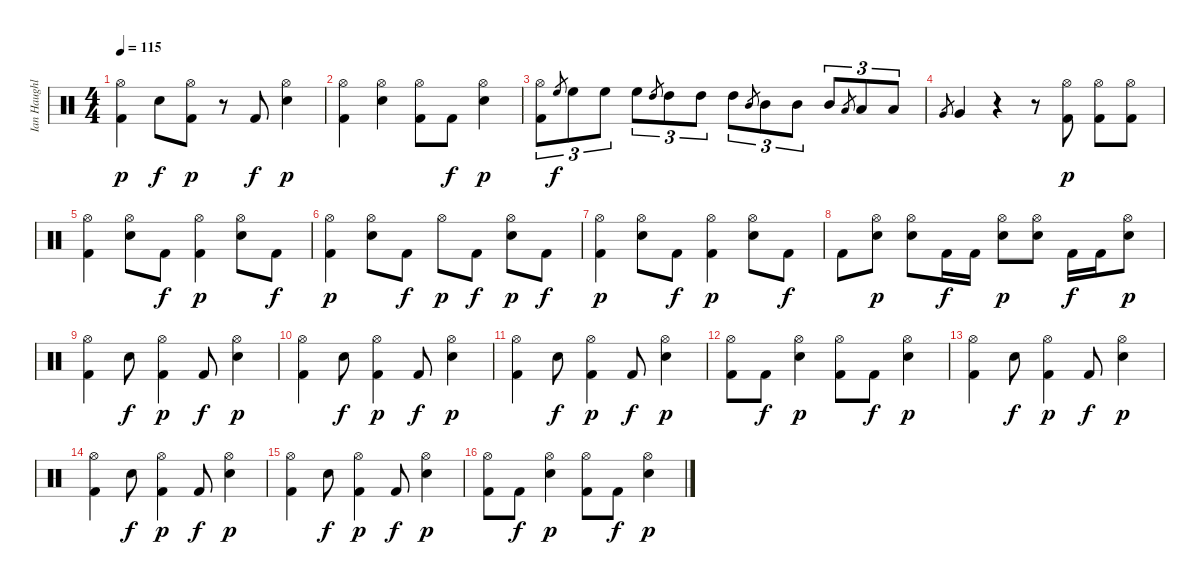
\track ("Ian Haughland" "Ian Haughl") {instrument percussion}
\staff {score}
\articulation defaults
\ts (4 4)
\tempo 115
\clef neutral
\ks c
("Kick (hit) 2" "Hi-Hat (open)").4{dy p} "Snare (hit) 2".8{dy f} ("Kick (hit) 2" "Hi-Hat (open)").8{dy p} r.8 "Kick (hit) 2".8{dy f} ("Snare (hit) 2" "Hi-Hat (open)").4{dy p} |
("Kick (hit) 2" "Hi-Hat (open)").4 ("Snare (hit) 2" "Hi-Hat (open)").4 ("Kick (hit) 2" "Hi-Hat (open)").8 "Kick (hit) 2".8{dy f} ("Snare (hit) 2" "Hi-Hat (open)").4{dy p} |
("Kick (hit) 2" "Hi-Hat (open)").8{tu (3 2)} "High Floor Tom (hit)".8{gr dy f} "High Floor Tom (hit)".8{tu (3 2)} "High Floor Tom (hit)".8{tu (3 2)} "High Floor Tom (hit)".8{tu (3 2)} "High Tom (hit)".8{gr} "High Tom (hit)".8{tu (3 2)} "High Tom (hit)".8{tu (3 2)} "High Tom (hit)".8{tu (3 2)} "Mid Tom (hit)".8{gr} "Mid Tom (hit)".8{tu (3 2)} "Mid Tom (hit)".8{tu (3 2)} "Mid Tom (hit)".8{tu (3 2)} "Low Tom (hit)".8{gr} "Low Tom (hit)".8{tu (3 2)} "Low Tom (hit)".8{tu (3 2)} |
"Very Low Tom (hit)".8{gr} "Very Low Tom (hit)".4 r.4 r.8 ("Kick (hit) 2" "Hi-Hat (open)").8{dy p} ("Kick (hit) 2" "Hi-Hat (open)").8 ("Kick (hit) 2" "Hi-Hat (open)").8 |
("Kick (hit) 2" "Hi-Hat (open)").4 ("Snare (hit) 2" "Hi-Hat (open)").8 "Kick (hit) 2".8{dy f} ("Kick (hit) 2" "Hi-Hat (open)").4{dy p} ("Snare (hit) 2" "Hi-Hat (open)").8 "Kick (hit) 2".8{dy f} |
("Kick (hit) 2" "Hi-Hat (open)").4{dy p} ("Snare (hit) 2" "Hi-Hat (open)").8 "Kick (hit) 2".8{dy f} "Hi-Hat (open)".8{dy p} "Kick (hit) 2".8{dy f} ("Snare (hit) 2" "Hi-Hat (open)").8{dy p} "Kick (hit) 2".8{dy f} |
("Kick (hit) 2" "Hi-Hat (open)").4{dy p} ("Snare (hit) 2" "Hi-Hat (open)").8 "Kick (hit) 2".8{dy f} ("Kick (hit) 2" "Hi-Hat (open)").4{dy p} ("Snare (hit) 2" "Hi-Hat (open)").8 "Kick (hit) 2".8{dy f} |
"Kick (hit) 2".8 ("Snare (hit) 2" "Hi-Hat (open)").8{dy p} ("Snare (hit) 2" "Hi-Hat (open)").8 "Kick (hit) 2".16{dy f} "Kick (hit) 2".16 ("Snare (hit) 2" "Hi-Hat (open)").8{dy p} ("Snare (hit) 2" "Hi-Hat (open)").8 "Kick (hit) 2".16{dy f} "Kick (hit) 2".16 ("Snare (hit) 2" "Hi-Hat (open)").8{dy p} |
("Kick (hit) 2" "Hi-Hat (open)").4 "Snare (hit) 2".8{dy f} ("Kick (hit) 2" "Hi-Hat (open)").4{dy p} "Kick (hit) 2".8{dy f} ("Snare (hit) 2" "Hi-Hat (open)").4{dy p} |
("Kick (hit) 2" "Hi-Hat (open)").4 "Snare (hit) 2".8{dy f} ("Kick (hit) 2" "Hi-Hat (open)").4{dy p} "Kick (hit) 2".8{dy f} ("Snare (hit) 2" "Hi-Hat (open)").4{dy p} |
("Kick (hit) 2" "Hi-Hat (open)").4 "Snare (hit) 2".8{dy f} ("Kick (hit) 2" "Hi-Hat (open)").4{dy p} "Kick (hit) 2".8{dy f} ("Snare (hit) 2" "Hi-Hat (open)").4{dy p} |
("Kick (hit) 2" "Hi-Hat (open)").8 "Kick (hit) 2".8{dy f} ("Snare (hit) 2" "Hi-Hat (open)").4{dy p} ("Kick (hit) 2" "Hi-Hat (open)").8 "Kick (hit) 2".8{dy f} ("Snare (hit) 2" "Hi-Hat (open)").4{dy p} |
("Kick (hit) 2" "Hi-Hat (open)").4 "Snare (hit) 2".8{dy f} ("Kick (hit) 2" "Hi-Hat (open)").4{dy p} "Kick (hit) 2".8{dy f} ("Snare (hit) 2" "Hi-Hat (open)").4{dy p} |
("Kick (hit) 2" "Hi-Hat (open)").4 "Snare (hit) 2".8{dy f} ("Kick (hit) 2" "Hi-Hat (open)").4{dy p} "Kick (hit) 2".8{dy f} ("Snare (hit) 2" "Hi-Hat (open)").4{dy p} |
("Kick (hit) 2" "Hi-Hat (open)").4 "Snare (hit) 2".8{dy f} ("Kick (hit) 2" "Hi-Hat (open)").4{dy p} "Kick (hit) 2".8{dy f} ("Snare (hit) 2" "Hi-Hat (open)").4{dy p} |
("Kick (hit) 2" "Hi-Hat (open)").8 "Kick (hit) 2".8{dy f} ("Snare (hit) 2" "Hi-Hat (open)").4{dy p} ("Kick (hit) 2" "Hi-Hat (open)").8 "Kick (hit) 2".8{dy f} ("Snare (hit) 2" "Hi-Hat (open)").4{dy p}
